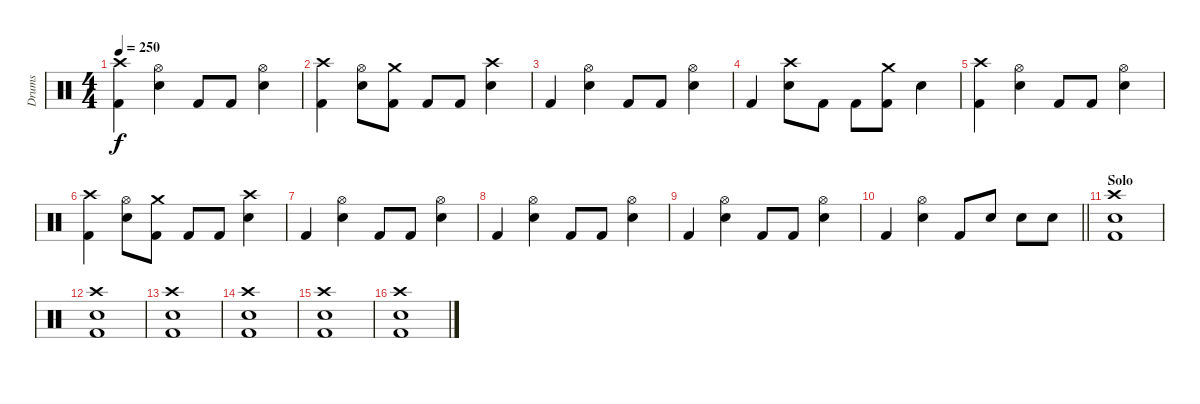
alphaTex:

\track ("Drums" "Drums") {instrument percussion}
\staff {score}
\articulation defaults
\ts (4 4)
\tempo 250
\clef neutral
\ks c
("Crash high (hit)" "Kick (hit) 2").4{dy f} ("Hi-Hat (open)" "Snare (hit) 2").4 "Kick (hit) 2".8 "Kick (hit) 2".8 ("Hi-Hat (open)" "Snare (hit) 2").4 |
("Crash high (hit)" "Kick (hit) 2").4 ("Hi-Hat (open)" "Snare (hit) 2").8 ("Crash medium (hit)" "Kick (hit) 2").8 "Kick (hit) 2".8 "Kick (hit) 2".8 ("Crash high (hit)" "Snare (hit) 2").4 |
"Kick (hit) 2".4 ("Hi-Hat (open)" "Snare (hit) 2").4 "Kick (hit) 2".8 "Kick (hit) 2".8 ("Hi-Hat (open)" "Snare (hit) 2").4 |
"Kick (hit) 2".4 ("Crash high (hit)" "Snare (hit) 2").8 "Kick (hit) 2".8 "Kick (hit) 2".8 ("Crash medium (hit)" "Kick (hit) 2").8 "Snare (hit) 2".4 |
("Crash high (hit)" "Kick (hit) 2").4 ("Hi-Hat (open)" "Snare (hit) 2").4 "Kick (hit) 2".8 "Kick (hit) 2".8 ("Hi-Hat (open)" "Snare (hit) 2").4 |
("Crash high (hit)" "Kick (hit) 2").4 ("Hi-Hat (open)" "Snare (hit) 2").8 ("Crash medium (hit)" "Kick (hit) 2").8 "Kick (hit) 2".8 "Kick (hit) 2".8 ("Crash high (hit)" "Snare (hit) 2").4 |
"Kick (hit) 2".4 ("Hi-Hat (open)" "Snare (hit) 2").4 "Kick (hit) 2".8 "Kick (hit) 2".8 ("Hi-Hat (open)" "Snare (hit) 2").4 |
"Kick (hit) 2".4 ("Hi-Hat (open)" "Snare (hit) 2").4 "Kick (hit) 2".8 "Kick (hit) 2".8 ("Hi-Hat (open)" "Snare (hit) 2").4 |
"Kick (hit) 2".4 ("Hi-Hat (open)" "Snare (hit) 2").4 "Kick (hit) 2".8 "Kick (hit) 2".8 ("Hi-Hat (open)" "Snare (hit) 2").4 |
\barLineRight lightlight "Kick (hit) 2".4
("Hi-Hat (open)" "Snare (hit) 2").4 "Kick (hit) 2".8 "Snare (hit) 2".8 "Snare (hit) 2".8 "Snare (hit) 2".8 |
\section ("" "Solo")
("Crash high (hit)" "Snare (hit) 2" "Kick (hit) 2").1 |
("Crash high (hit)" "Snare (hit) 2" "Kick (hit) 2").1 |
("Crash high (hit)" "Snare (hit) 2" "Kick (hit) 2").1 |
("Crash high (hit)" "Snare (hit) 2" "Kick (hit) 2").1 |
("Crash high (hit)" "Snare (hit) 2" "Kick (hit) 2").1 |
("Crash high (hit)" "Snare (hit) 2" "Kick (hit) 2").1
